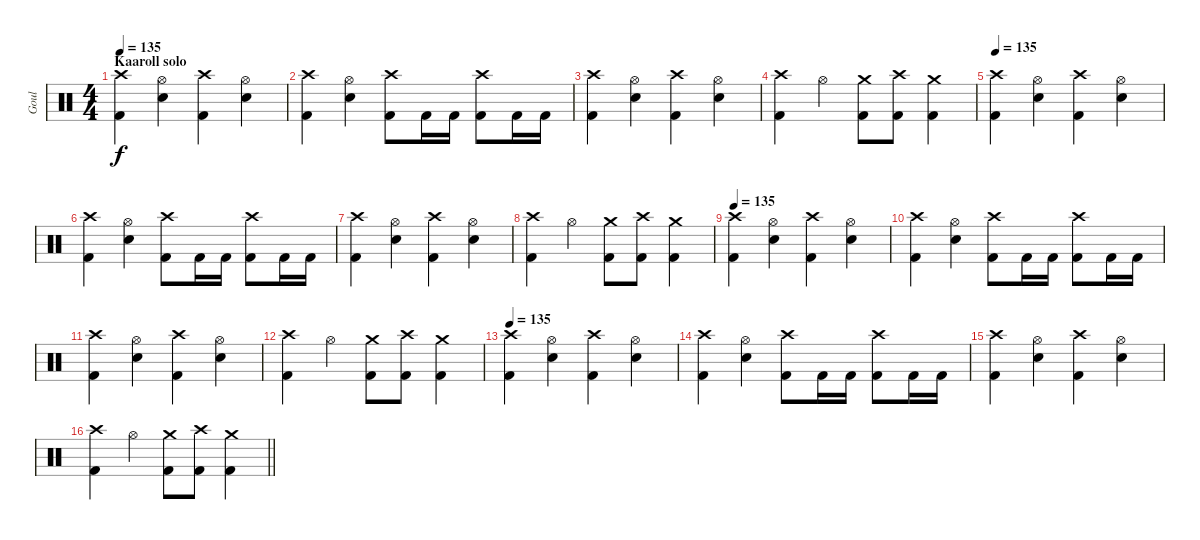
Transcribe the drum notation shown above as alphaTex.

\track ("Goul" "Goul") {instrument percussion}
\staff {score}
\articulation defaults
\ts (4 4)
\section ("" "Kaaroll solo")
\tempo 135
\clef neutral
\ks c
("Crash high (hit)" "Kick (hit) 2").4{dy f} ("Hi-Hat (open)" "Electric Snare (hit)").4 ("Crash high (hit)" "Kick (hit) 2").4 ("Hi-Hat (open)" "Electric Snare (hit)").4 |
("Crash high (hit)" "Kick (hit) 2").4 ("Hi-Hat (open)" "Electric Snare (hit)").4 ("Crash high (hit)" "Kick (hit) 2").8 "Kick (hit) 2".16 "Kick (hit) 2".16 ("Crash high (hit)" "Kick (hit) 2").8 "Kick (hit) 2".16 "Kick (hit) 2".16 |
("Crash high (hit)" "Kick (hit) 2").4 ("Hi-Hat (open)" "Electric Snare (hit)").4 ("Crash high (hit)" "Kick (hit) 2").4 ("Hi-Hat (open)" "Electric Snare (hit)").4 |
("Crash high (hit)" "Kick (hit) 2").4 "Hi-Hat (open)".4 ("Crash medium (hit)" "Kick (hit) 2").8 ("Crash high (hit)" "Kick (hit) 2").8 ("Crash medium (hit)" "Kick (hit) 2").4 |
\tempo 135
("Crash high (hit)" "Kick (hit) 2").4 ("Hi-Hat (open)" "Electric Snare (hit)").4 ("Crash high (hit)" "Kick (hit) 2").4 ("Hi-Hat (open)" "Electric Snare (hit)").4 |
("Crash high (hit)" "Kick (hit) 2").4 ("Hi-Hat (open)" "Electric Snare (hit)").4 ("Crash high (hit)" "Kick (hit) 2").8 "Kick (hit) 2".16 "Kick (hit) 2".16 ("Crash high (hit)" "Kick (hit) 2").8 "Kick (hit) 2".16 "Kick (hit) 2".16 |
("Crash high (hit)" "Kick (hit) 2").4 ("Hi-Hat (open)" "Electric Snare (hit)").4 ("Crash high (hit)" "Kick (hit) 2").4 ("Hi-Hat (open)" "Electric Snare (hit)").4 |
("Crash high (hit)" "Kick (hit) 2").4 "Hi-Hat (open)".4 ("Crash medium (hit)" "Kick (hit) 2").8 ("Crash high (hit)" "Kick (hit) 2").8 ("Crash medium (hit)" "Kick (hit) 2").4 |
\tempo 135
("Crash high (hit)" "Kick (hit) 2").4 ("Hi-Hat (open)" "Electric Snare (hit)").4 ("Crash high (hit)" "Kick (hit) 2").4 ("Hi-Hat (open)" "Electric Snare (hit)").4 |
("Crash high (hit)" "Kick (hit) 2").4 ("Hi-Hat (open)" "Electric Snare (hit)").4 ("Crash high (hit)" "Kick (hit) 2").8 "Kick (hit) 2".16 "Kick (hit) 2".16 ("Crash high (hit)" "Kick (hit) 2").8 "Kick (hit) 2".16 "Kick (hit) 2".16 |
("Crash high (hit)" "Kick (hit) 2").4 ("Hi-Hat (open)" "Electric Snare (hit)").4 ("Crash high (hit)" "Kick (hit) 2").4 ("Hi-Hat (open)" "Electric Snare (hit)").4 |
("Crash high (hit)" "Kick (hit) 2").4 "Hi-Hat (open)".4 ("Crash medium (hit)" "Kick (hit) 2").8 ("Crash high (hit)" "Kick (hit) 2").8 ("Crash medium (hit)" "Kick (hit) 2").4 |
\tempo 135
("Crash high (hit)" "Kick (hit) 2").4 ("Hi-Hat (open)" "Electric Snare (hit)").4 ("Crash high (hit)" "Kick (hit) 2").4 ("Hi-Hat (open)" "Electric Snare (hit)").4 |
("Crash high (hit)" "Kick (hit) 2").4 ("Hi-Hat (open)" "Electric Snare (hit)").4 ("Crash high (hit)" "Kick (hit) 2").8 "Kick (hit) 2".16 "Kick (hit) 2".16 ("Crash high (hit)" "Kick (hit) 2").8 "Kick (hit) 2".16 "Kick (hit) 2".16 |
("Crash high (hit)" "Kick (hit) 2").4 ("Hi-Hat (open)" "Electric Snare (hit)").4 ("Crash high (hit)" "Kick (hit) 2").4 ("Hi-Hat (open)" "Electric Snare (hit)").4 |
\barLineRight lightlight
("Crash high (hit)" "Kick (hit) 2").4 "Hi-Hat (open)".4 ("Crash medium (hit)" "Kick (hit) 2").8 ("Crash high (hit)" "Kick (hit) 2").8 ("Crash medium (hit)" "Kick (hit) 2").4
